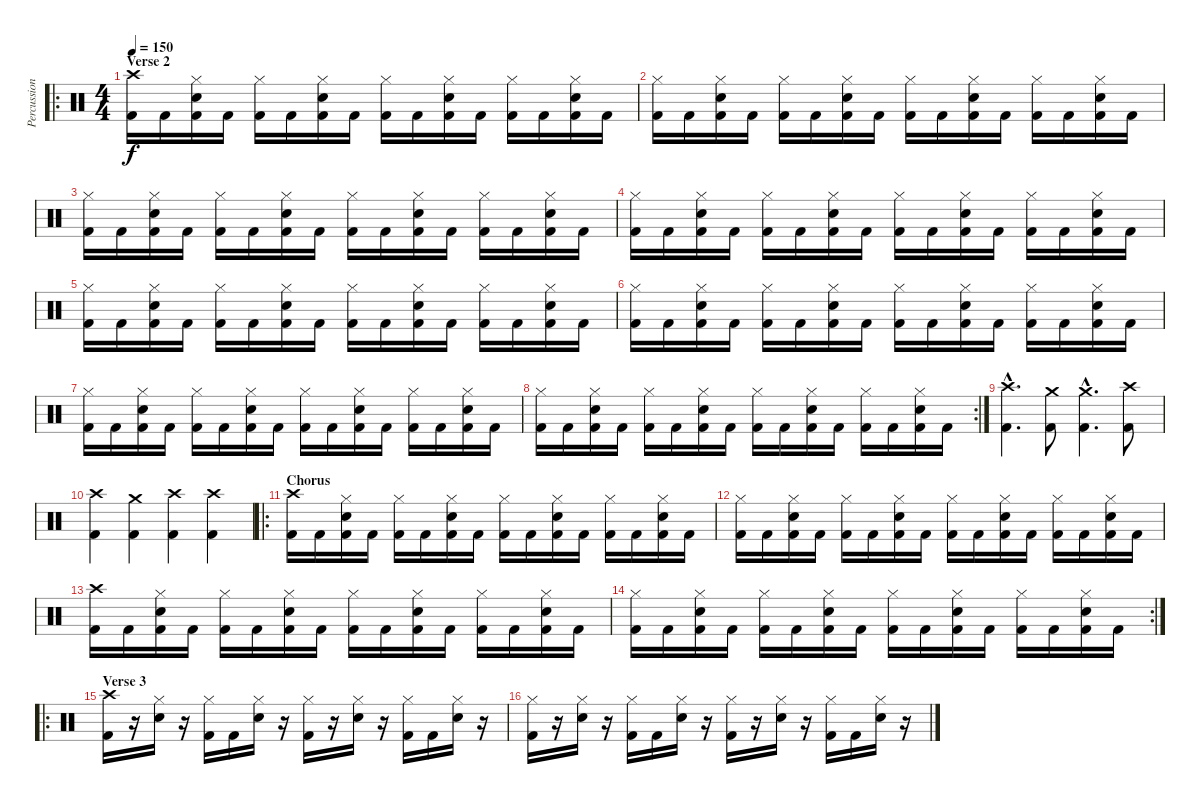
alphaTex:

\track ("Percussion" "Percussion") {instrument percussion}
\staff {score}
\articulation defaults
\ro
\ts (4 4)
\section ("" "Verse 2")
\tempo 150
\clef neutral
\ks c
("Crash high (hit)" "Kick (hit) 2").16{dy f} "Kick (hit) 2".16 ("Hi-Hat (closed)" "Snare (hit) 2" "Kick (hit) 2").16 "Kick (hit) 2".16 ("Hi-Hat (closed)" "Kick (hit) 2").16 "Kick (hit) 2".16 ("Hi-Hat (closed)" "Snare (hit) 2" "Kick (hit) 2").16 "Kick (hit) 2".16 ("Hi-Hat (closed)" "Kick (hit) 2").16 "Kick (hit) 2".16 ("Hi-Hat (closed)" "Snare (hit) 2" "Kick (hit) 2").16 "Kick (hit) 2".16 ("Hi-Hat (closed)" "Kick (hit) 2").16 "Kick (hit) 2".16 ("Hi-Hat (closed)" "Snare (hit) 2" "Kick (hit) 2").16 "Kick (hit) 2".16 |
("Hi-Hat (closed)" "Kick (hit) 2").16 "Kick (hit) 2".16 ("Hi-Hat (closed)" "Snare (hit) 2" "Kick (hit) 2").16 "Kick (hit) 2".16 ("Hi-Hat (closed)" "Kick (hit) 2").16 "Kick (hit) 2".16 ("Hi-Hat (closed)" "Snare (hit) 2" "Kick (hit) 2").16 "Kick (hit) 2".16 ("Hi-Hat (closed)" "Kick (hit) 2").16 "Kick (hit) 2".16 ("Hi-Hat (closed)" "Snare (hit) 2" "Kick (hit) 2").16 "Kick (hit) 2".16 ("Hi-Hat (closed)" "Kick (hit) 2").16 "Kick (hit) 2".16 ("Hi-Hat (closed)" "Snare (hit) 2" "Kick (hit) 2").16 "Kick (hit) 2".16 |
("Hi-Hat (closed)" "Kick (hit) 2").16 "Kick (hit) 2".16 ("Hi-Hat (closed)" "Snare (hit) 2" "Kick (hit) 2").16 "Kick (hit) 2".16 ("Hi-Hat (closed)" "Kick (hit) 2").16 "Kick (hit) 2".16 ("Hi-Hat (closed)" "Snare (hit) 2" "Kick (hit) 2").16 "Kick (hit) 2".16 ("Hi-Hat (closed)" "Kick (hit) 2").16 "Kick (hit) 2".16 ("Hi-Hat (closed)" "Snare (hit) 2" "Kick (hit) 2").16 "Kick (hit) 2".16 ("Hi-Hat (closed)" "Kick (hit) 2").16 "Kick (hit) 2".16 ("Hi-Hat (closed)" "Snare (hit) 2" "Kick (hit) 2").16 "Kick (hit) 2".16 |
("Hi-Hat (closed)" "Kick (hit) 2").16 "Kick (hit) 2".16 ("Hi-Hat (closed)" "Snare (hit) 2" "Kick (hit) 2").16 "Kick (hit) 2".16 ("Hi-Hat (closed)" "Kick (hit) 2").16 "Kick (hit) 2".16 ("Hi-Hat (closed)" "Snare (hit) 2" "Kick (hit) 2").16 "Kick (hit) 2".16 ("Hi-Hat (closed)" "Kick (hit) 2").16 "Kick (hit) 2".16 ("Hi-Hat (closed)" "Snare (hit) 2" "Kick (hit) 2").16 "Kick (hit) 2".16 ("Hi-Hat (closed)" "Kick (hit) 2").16 "Kick (hit) 2".16 ("Hi-Hat (closed)" "Snare (hit) 2" "Kick (hit) 2").16 "Kick (hit) 2".16 |
("Hi-Hat (closed)" "Kick (hit) 2").16 "Kick (hit) 2".16 ("Hi-Hat (closed)" "Snare (hit) 2" "Kick (hit) 2").16 "Kick (hit) 2".16 ("Hi-Hat (closed)" "Kick (hit) 2").16 "Kick (hit) 2".16 ("Hi-Hat (closed)" "Snare (hit) 2" "Kick (hit) 2").16 "Kick (hit) 2".16 ("Hi-Hat (closed)" "Kick (hit) 2").16 "Kick (hit) 2".16 ("Hi-Hat (closed)" "Snare (hit) 2" "Kick (hit) 2").16 "Kick (hit) 2".16 ("Hi-Hat (closed)" "Kick (hit) 2").16 "Kick (hit) 2".16 ("Hi-Hat (closed)" "Snare (hit) 2" "Kick (hit) 2").16 "Kick (hit) 2".16 |
("Hi-Hat (closed)" "Kick (hit) 2").16 "Kick (hit) 2".16 ("Hi-Hat (closed)" "Snare (hit) 2" "Kick (hit) 2").16 "Kick (hit) 2".16 ("Hi-Hat (closed)" "Kick (hit) 2").16 "Kick (hit) 2".16 ("Hi-Hat (closed)" "Snare (hit) 2" "Kick (hit) 2").16 "Kick (hit) 2".16 ("Hi-Hat (closed)" "Kick (hit) 2").16 "Kick (hit) 2".16 ("Hi-Hat (closed)" "Snare (hit) 2" "Kick (hit) 2").16 "Kick (hit) 2".16 ("Hi-Hat (closed)" "Kick (hit) 2").16 "Kick (hit) 2".16 ("Hi-Hat (closed)" "Snare (hit) 2" "Kick (hit) 2").16 "Kick (hit) 2".16 |
("Hi-Hat (closed)" "Kick (hit) 2").16 "Kick (hit) 2".16 ("Hi-Hat (closed)" "Snare (hit) 2" "Kick (hit) 2").16 "Kick (hit) 2".16 ("Hi-Hat (closed)" "Kick (hit) 2").16 "Kick (hit) 2".16 ("Hi-Hat (closed)" "Snare (hit) 2" "Kick (hit) 2").16 "Kick (hit) 2".16 ("Hi-Hat (closed)" "Kick (hit) 2").16 "Kick (hit) 2".16 ("Hi-Hat (closed)" "Snare (hit) 2" "Kick (hit) 2").16 "Kick (hit) 2".16 ("Hi-Hat (closed)" "Kick (hit) 2").16 "Kick (hit) 2".16 ("Hi-Hat (closed)" "Snare (hit) 2" "Kick (hit) 2").16 "Kick (hit) 2".16 |
\rc 2
("Hi-Hat (closed)" "Kick (hit) 2").16 "Kick (hit) 2".16 ("Hi-Hat (closed)" "Snare (hit) 2" "Kick (hit) 2").16 "Kick (hit) 2".16 ("Hi-Hat (closed)" "Kick (hit) 2").16 "Kick (hit) 2".16 ("Hi-Hat (closed)" "Snare (hit) 2" "Kick (hit) 2").16 "Kick (hit) 2".16 ("Hi-Hat (closed)" "Kick (hit) 2").16 "Kick (hit) 2".16 ("Hi-Hat (closed)" "Snare (hit) 2" "Kick (hit) 2").16 "Kick (hit) 2".16 ("Hi-Hat (closed)" "Kick (hit) 2").16 "Kick (hit) 2".16 ("Hi-Hat (closed)" "Snare (hit) 2" "Kick (hit) 2").16 "Kick (hit) 2".16 |
("Crash high (hit)"{hac} "Kick (hit) 2"{hac}).4{d} ("Crash medium (hit)" "Kick (hit) 2").8 ("Crash medium (hit)"{hac} "Kick (hit) 2"{hac}).4{d} ("Crash high (hit)" "Kick (hit) 2").8 |
("Crash high (hit)" "Kick (hit) 2").4 ("Crash medium (hit)" "Kick (hit) 2").4 ("Crash high (hit)" "Kick (hit) 2").4 ("Crash high (hit)" "Kick (hit) 2").4 |
\ro
\section ("" "Chorus")
("Crash high (hit)" "Kick (hit) 2").16 "Kick (hit) 2".16 ("Hi-Hat (closed)" "Snare (hit) 2" "Kick (hit) 2").16 "Kick (hit) 2".16 ("Hi-Hat (closed)" "Kick (hit) 2").16 "Kick (hit) 2".16 ("Hi-Hat (closed)" "Snare (hit) 2" "Kick (hit) 2").16 "Kick (hit) 2".16 ("Hi-Hat (closed)" "Kick (hit) 2").16 "Kick (hit) 2".16 ("Hi-Hat (closed)" "Snare (hit) 2" "Kick (hit) 2").16 "Kick (hit) 2".16 ("Hi-Hat (closed)" "Kick (hit) 2").16 "Kick (hit) 2".16 ("Hi-Hat (closed)" "Snare (hit) 2" "Kick (hit) 2").16 "Kick (hit) 2".16 |
("Hi-Hat (closed)" "Kick (hit) 2").16 "Kick (hit) 2".16 ("Hi-Hat (closed)" "Snare (hit) 2" "Kick (hit) 2").16 "Kick (hit) 2".16 ("Hi-Hat (closed)" "Kick (hit) 2").16 "Kick (hit) 2".16 ("Hi-Hat (closed)" "Snare (hit) 2" "Kick (hit) 2").16 "Kick (hit) 2".16 ("Hi-Hat (closed)" "Kick (hit) 2").16 "Kick (hit) 2".16 ("Hi-Hat (closed)" "Snare (hit) 2" "Kick (hit) 2").16 "Kick (hit) 2".16 ("Hi-Hat (closed)" "Kick (hit) 2").16 "Kick (hit) 2".16 ("Hi-Hat (closed)" "Snare (hit) 2" "Kick (hit) 2").16 "Kick (hit) 2".16 |
("Crash high (hit)" "Kick (hit) 2").16 "Kick (hit) 2".16 ("Hi-Hat (closed)" "Snare (hit) 2" "Kick (hit) 2").16 "Kick (hit) 2".16 ("Hi-Hat (closed)" "Kick (hit) 2").16 "Kick (hit) 2".16 ("Hi-Hat (closed)" "Snare (hit) 2" "Kick (hit) 2").16 "Kick (hit) 2".16 ("Hi-Hat (closed)" "Kick (hit) 2").16 "Kick (hit) 2".16 ("Hi-Hat (closed)" "Snare (hit) 2" "Kick (hit) 2").16 "Kick (hit) 2".16 ("Hi-Hat (closed)" "Kick (hit) 2").16 "Kick (hit) 2".16 ("Hi-Hat (closed)" "Snare (hit) 2" "Kick (hit) 2").16 "Kick (hit) 2".16 |
\rc 2
("Hi-Hat (closed)" "Kick (hit) 2").16 "Kick (hit) 2".16 ("Hi-Hat (closed)" "Snare (hit) 2" "Kick (hit) 2").16 "Kick (hit) 2".16 ("Hi-Hat (closed)" "Kick (hit) 2").16 "Kick (hit) 2".16 ("Hi-Hat (closed)" "Snare (hit) 2" "Kick (hit) 2").16 "Kick (hit) 2".16 ("Hi-Hat (closed)" "Kick (hit) 2").16 "Kick (hit) 2".16 ("Hi-Hat (closed)" "Snare (hit) 2" "Kick (hit) 2").16 "Kick (hit) 2".16 ("Hi-Hat (closed)" "Kick (hit) 2").16 "Kick (hit) 2".16 ("Hi-Hat (closed)" "Snare (hit) 2" "Kick (hit) 2").16 "Kick (hit) 2".16 |
\ro
\section ("" "Verse 3")
("Crash high (hit)" "Kick (hit) 2").16 r.16 ("Hi-Hat (closed)" "Snare (hit) 2").16 r.16 ("Hi-Hat (closed)" "Kick (hit) 2").16 "Kick (hit) 2".16 ("Hi-Hat (closed)" "Snare (hit) 2").16 r.16 ("Hi-Hat (closed)" "Kick (hit) 2").16 r.16 ("Hi-Hat (closed)" "Snare (hit) 2").16 r.16 ("Hi-Hat (closed)" "Kick (hit) 2").16 "Kick (hit) 2".16 ("Hi-Hat (closed)" "Snare (hit) 2").16 r.16 |
("Hi-Hat (closed)" "Kick (hit) 2").16 r.16 ("Hi-Hat (closed)" "Snare (hit) 2").16 r.16 ("Hi-Hat (closed)" "Kick (hit) 2").16 "Kick (hit) 2".16 ("Hi-Hat (closed)" "Snare (hit) 2").16 r.16 ("Hi-Hat (closed)" "Kick (hit) 2").16 r.16 ("Hi-Hat (closed)" "Snare (hit) 2").16 r.16 ("Hi-Hat (closed)" "Kick (hit) 2").16 "Kick (hit) 2".16 ("Hi-Hat (closed)" "Snare (hit) 2").16 r.16
